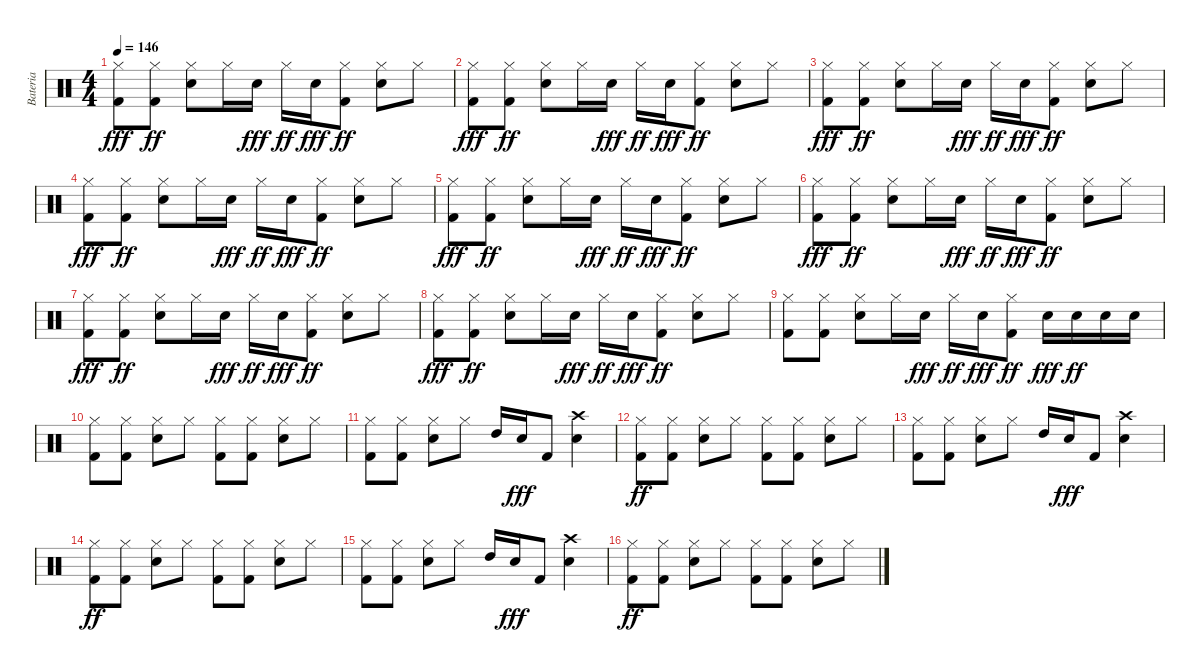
\track ("Bateria" "Bateria") {instrument percussion}
\staff {score}
\articulation defaults
\ts (4 4)
\tempo 146
\clef neutral
\ks c
("Hi-Hat (closed)" "Kick (hit) 2").8{dy fff} ("Kick (hit) 2" "Hi-Hat (closed)").8{dy ff} ("Electric Snare (hit)" "Hi-Hat (closed)").8 "Hi-Hat (closed)".16 "Electric Snare (hit)".16{dy fff} "Hi-Hat (closed)".16{dy ff} "Electric Snare (hit)".16{dy fff} ("Kick (hit) 2" "Hi-Hat (closed)").8{dy ff} ("Electric Snare (hit)" "Hi-Hat (closed)").8 "Hi-Hat (closed)".8 |
("Hi-Hat (closed)" "Kick (hit) 2").8{dy fff} ("Kick (hit) 2" "Hi-Hat (closed)").8{dy ff} ("Electric Snare (hit)" "Hi-Hat (closed)").8 "Hi-Hat (closed)".16 "Electric Snare (hit)".16{dy fff} "Hi-Hat (closed)".16{dy ff} "Electric Snare (hit)".16{dy fff} ("Kick (hit) 2" "Hi-Hat (closed)").8{dy ff} ("Electric Snare (hit)" "Hi-Hat (closed)").8 "Hi-Hat (closed)".8 |
("Hi-Hat (closed)" "Kick (hit) 2").8{dy fff} ("Kick (hit) 2" "Hi-Hat (closed)").8{dy ff} ("Electric Snare (hit)" "Hi-Hat (closed)").8 "Hi-Hat (closed)".16 "Electric Snare (hit)".16{dy fff} "Hi-Hat (closed)".16{dy ff} "Electric Snare (hit)".16{dy fff} ("Kick (hit) 2" "Hi-Hat (closed)").8{dy ff} ("Electric Snare (hit)" "Hi-Hat (closed)").8 "Hi-Hat (closed)".8 |
("Hi-Hat (closed)" "Kick (hit) 2").8{dy fff} ("Kick (hit) 2" "Hi-Hat (closed)").8{dy ff} ("Electric Snare (hit)" "Hi-Hat (closed)").8 "Hi-Hat (closed)".16 "Electric Snare (hit)".16{dy fff} "Hi-Hat (closed)".16{dy ff} "Electric Snare (hit)".16{dy fff} ("Kick (hit) 2" "Hi-Hat (closed)").8{dy ff} ("Electric Snare (hit)" "Hi-Hat (closed)").8 "Hi-Hat (closed)".8 |
("Hi-Hat (closed)" "Kick (hit) 2").8{dy fff} ("Kick (hit) 2" "Hi-Hat (closed)").8{dy ff} ("Electric Snare (hit)" "Hi-Hat (closed)").8 "Hi-Hat (closed)".16 "Electric Snare (hit)".16{dy fff} "Hi-Hat (closed)".16{dy ff} "Electric Snare (hit)".16{dy fff} ("Kick (hit) 2" "Hi-Hat (closed)").8{dy ff} ("Electric Snare (hit)" "Hi-Hat (closed)").8 "Hi-Hat (closed)".8 |
("Hi-Hat (closed)" "Kick (hit) 2").8{dy fff} ("Kick (hit) 2" "Hi-Hat (closed)").8{dy ff} ("Electric Snare (hit)" "Hi-Hat (closed)").8 "Hi-Hat (closed)".16 "Electric Snare (hit)".16{dy fff} "Hi-Hat (closed)".16{dy ff} "Electric Snare (hit)".16{dy fff} ("Kick (hit) 2" "Hi-Hat (closed)").8{dy ff} ("Electric Snare (hit)" "Hi-Hat (closed)").8 "Hi-Hat (closed)".8 |
("Hi-Hat (closed)" "Kick (hit) 2").8{dy fff} ("Kick (hit) 2" "Hi-Hat (closed)").8{dy ff} ("Electric Snare (hit)" "Hi-Hat (closed)").8 "Hi-Hat (closed)".16 "Electric Snare (hit)".16{dy fff} "Hi-Hat (closed)".16{dy ff} "Electric Snare (hit)".16{dy fff} ("Kick (hit) 2" "Hi-Hat (closed)").8{dy ff} ("Electric Snare (hit)" "Hi-Hat (closed)").8 "Hi-Hat (closed)".8 |
("Hi-Hat (closed)" "Kick (hit) 2").8{dy fff} ("Kick (hit) 2" "Hi-Hat (closed)").8{dy ff} ("Electric Snare (hit)" "Hi-Hat (closed)").8 "Hi-Hat (closed)".16 "Electric Snare (hit)".16{dy fff} "Hi-Hat (closed)".16{dy ff} "Electric Snare (hit)".16{dy fff} ("Kick (hit) 2" "Hi-Hat (closed)").8{dy ff} ("Electric Snare (hit)" "Hi-Hat (closed)").8 "Hi-Hat (closed)".8 |
("Kick (hit) 2" "Hi-Hat (closed)").8 ("Kick (hit) 2" "Hi-Hat (closed)").8 ("Electric Snare (hit)" "Hi-Hat (closed)").8 "Hi-Hat (closed)".16 "Electric Snare (hit)".16{dy fff} "Hi-Hat (closed)".16{dy ff} "Electric Snare (hit)".16{dy fff} ("Kick (hit) 2" "Hi-Hat (closed)").8{dy ff} "Electric Snare (hit)".16{dy fff} "Electric Snare (hit)".16{dy ff} "Electric Snare (hit)".16 "Electric Snare (hit)".16 |
("Kick (hit) 2" "Hi-Hat (closed)").8 ("Kick (hit) 2" "Hi-Hat (closed)").8 ("Electric Snare (hit)" "Hi-Hat (closed)").8 "Hi-Hat (closed)".8 ("Kick (hit) 2" "Hi-Hat (closed)").8 ("Kick (hit) 2" "Hi-Hat (closed)").8 ("Electric Snare (hit)" "Hi-Hat (closed)").8 "Hi-Hat (closed)".8 |
("Kick (hit) 2" "Hi-Hat (closed)").8 ("Kick (hit) 2" "Hi-Hat (closed)").8 ("Electric Snare (hit)" "Hi-Hat (closed)").8 "Hi-Hat (closed)".8 "High Tom (hit)".16 "Electric Snare (hit)".16{dy fff} "Kick (hit) 2".8 ("Crash high (hit)" "Electric Snare (hit)").4 |
("Kick (hit) 2" "Hi-Hat (closed)").8{dy ff} ("Kick (hit) 2" "Hi-Hat (closed)").8 ("Electric Snare (hit)" "Hi-Hat (closed)").8 "Hi-Hat (closed)".8 ("Kick (hit) 2" "Hi-Hat (closed)").8 ("Kick (hit) 2" "Hi-Hat (closed)").8 ("Electric Snare (hit)" "Hi-Hat (closed)").8 "Hi-Hat (closed)".8 |
("Kick (hit) 2" "Hi-Hat (closed)").8 ("Kick (hit) 2" "Hi-Hat (closed)").8 ("Electric Snare (hit)" "Hi-Hat (closed)").8 "Hi-Hat (closed)".8 "High Tom (hit)".16 "Electric Snare (hit)".16{dy fff} "Kick (hit) 2".8 ("Crash high (hit)" "Electric Snare (hit)").4 |
("Kick (hit) 2" "Hi-Hat (closed)").8{dy ff} ("Kick (hit) 2" "Hi-Hat (closed)").8 ("Electric Snare (hit)" "Hi-Hat (closed)").8 "Hi-Hat (closed)".8 ("Kick (hit) 2" "Hi-Hat (closed)").8 ("Kick (hit) 2" "Hi-Hat (closed)").8 ("Electric Snare (hit)" "Hi-Hat (closed)").8 "Hi-Hat (closed)".8 |
("Kick (hit) 2" "Hi-Hat (closed)").8 ("Kick (hit) 2" "Hi-Hat (closed)").8 ("Electric Snare (hit)" "Hi-Hat (closed)").8 "Hi-Hat (closed)".8 "High Tom (hit)".16 "Electric Snare (hit)".16{dy fff} "Kick (hit) 2".8 ("Crash high (hit)" "Electric Snare (hit)").4 |
("Kick (hit) 2" "Hi-Hat (closed)").8{dy ff} ("Kick (hit) 2" "Hi-Hat (closed)").8 ("Electric Snare (hit)" "Hi-Hat (closed)").8 "Hi-Hat (closed)".8 ("Kick (hit) 2" "Hi-Hat (closed)").8 ("Kick (hit) 2" "Hi-Hat (closed)").8 ("Electric Snare (hit)" "Hi-Hat (closed)").8 "Hi-Hat (closed)".8
